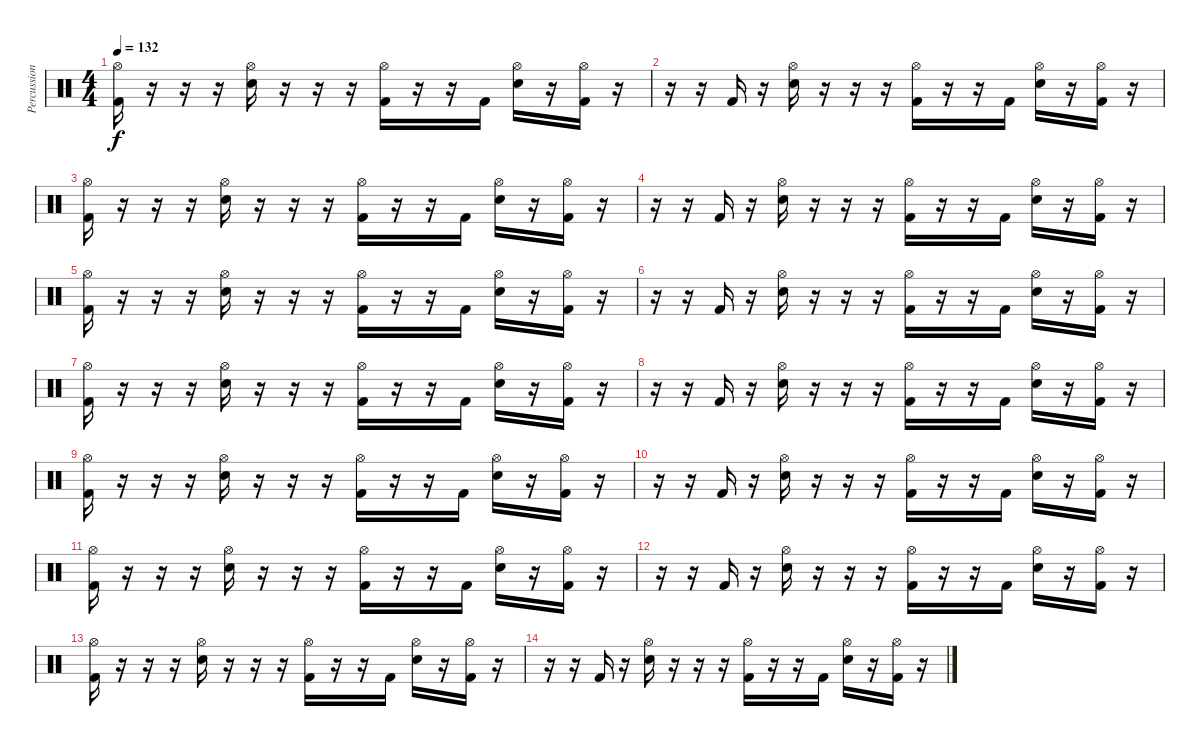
\track ("Percussion" "Percussion") {instrument percussion}
\staff {score}
\articulation defaults
\ts (4 4)
\tempo 132
\clef neutral
\ks c
("Hi-Hat (open)" "Kick (hit) 2").16{dy f} r.16 r.16 r.16 ("Hi-Hat (open)" "Snare (hit) 2").16 r.16 r.16 r.16 ("Hi-Hat (open)" "Kick (hit) 2").16 r.16 r.16 "Kick (hit) 2".16 ("Hi-Hat (open)" "Snare (hit) 2").16 r.16 ("Hi-Hat (open)" "Kick (hit) 2").16 r.16 |
r.16 r.16 "Kick (hit) 2".16 r.16 ("Hi-Hat (open)" "Snare (hit) 2").16 r.16 r.16 r.16 ("Hi-Hat (open)" "Kick (hit) 2").16 r.16 r.16 "Kick (hit) 2".16 ("Hi-Hat (open)" "Snare (hit) 2").16 r.16 ("Hi-Hat (open)" "Kick (hit) 2").16 r.16 |
("Hi-Hat (open)" "Kick (hit) 2").16 r.16 r.16 r.16 ("Hi-Hat (open)" "Snare (hit) 2").16 r.16 r.16 r.16 ("Hi-Hat (open)" "Kick (hit) 2").16 r.16 r.16 "Kick (hit) 2".16 ("Hi-Hat (open)" "Snare (hit) 2").16 r.16 ("Hi-Hat (open)" "Kick (hit) 2").16 r.16 |
r.16 r.16 "Kick (hit) 2".16 r.16 ("Hi-Hat (open)" "Snare (hit) 2").16 r.16 r.16 r.16 ("Hi-Hat (open)" "Kick (hit) 2").16 r.16 r.16 "Kick (hit) 2".16 ("Hi-Hat (open)" "Snare (hit) 2").16 r.16 ("Hi-Hat (open)" "Kick (hit) 2").16 r.16 |
("Hi-Hat (open)" "Kick (hit) 2").16 r.16 r.16 r.16 ("Hi-Hat (open)" "Snare (hit) 2").16 r.16 r.16 r.16 ("Hi-Hat (open)" "Kick (hit) 2").16 r.16 r.16 "Kick (hit) 2".16 ("Hi-Hat (open)" "Snare (hit) 2").16 r.16 ("Hi-Hat (open)" "Kick (hit) 2").16 r.16 |
r.16 r.16 "Kick (hit) 2".16 r.16 ("Hi-Hat (open)" "Snare (hit) 2").16 r.16 r.16 r.16 ("Hi-Hat (open)" "Kick (hit) 2").16 r.16 r.16 "Kick (hit) 2".16 ("Hi-Hat (open)" "Snare (hit) 2").16 r.16 ("Hi-Hat (open)" "Kick (hit) 2").16 r.16 |
("Hi-Hat (open)" "Kick (hit) 2").16 r.16 r.16 r.16 ("Hi-Hat (open)" "Snare (hit) 2").16 r.16 r.16 r.16 ("Hi-Hat (open)" "Kick (hit) 2").16 r.16 r.16 "Kick (hit) 2".16 ("Hi-Hat (open)" "Snare (hit) 2").16 r.16 ("Hi-Hat (open)" "Kick (hit) 2").16 r.16 |
r.16 r.16 "Kick (hit) 2".16 r.16 ("Hi-Hat (open)" "Snare (hit) 2").16 r.16 r.16 r.16 ("Hi-Hat (open)" "Kick (hit) 2").16 r.16 r.16 "Kick (hit) 2".16 ("Hi-Hat (open)" "Snare (hit) 2").16 r.16 ("Hi-Hat (open)" "Kick (hit) 2").16 r.16 |
("Hi-Hat (open)" "Kick (hit) 2").16 r.16 r.16 r.16 ("Hi-Hat (open)" "Snare (hit) 2").16 r.16 r.16 r.16 ("Hi-Hat (open)" "Kick (hit) 2").16 r.16 r.16 "Kick (hit) 2".16 ("Hi-Hat (open)" "Snare (hit) 2").16 r.16 ("Hi-Hat (open)" "Kick (hit) 2").16 r.16 |
r.16 r.16 "Kick (hit) 2".16 r.16 ("Hi-Hat (open)" "Snare (hit) 2").16 r.16 r.16 r.16 ("Hi-Hat (open)" "Kick (hit) 2").16 r.16 r.16 "Kick (hit) 2".16 ("Hi-Hat (open)" "Snare (hit) 2").16 r.16 ("Hi-Hat (open)" "Kick (hit) 2").16 r.16 |
("Hi-Hat (open)" "Kick (hit) 2").16 r.16 r.16 r.16 ("Hi-Hat (open)" "Snare (hit) 2").16 r.16 r.16 r.16 ("Hi-Hat (open)" "Kick (hit) 2").16 r.16 r.16 "Kick (hit) 2".16 ("Hi-Hat (open)" "Snare (hit) 2").16 r.16 ("Hi-Hat (open)" "Kick (hit) 2").16 r.16 |
r.16 r.16 "Kick (hit) 2".16 r.16 ("Hi-Hat (open)" "Snare (hit) 2").16 r.16 r.16 r.16 ("Hi-Hat (open)" "Kick (hit) 2").16 r.16 r.16 "Kick (hit) 2".16 ("Hi-Hat (open)" "Snare (hit) 2").16 r.16 ("Hi-Hat (open)" "Kick (hit) 2").16 r.16 |
("Hi-Hat (open)" "Kick (hit) 2").16 r.16 r.16 r.16 ("Hi-Hat (open)" "Snare (hit) 2").16 r.16 r.16 r.16 ("Hi-Hat (open)" "Kick (hit) 2").16 r.16 r.16 "Kick (hit) 2".16 ("Hi-Hat (open)" "Snare (hit) 2").16 r.16 ("Hi-Hat (open)" "Kick (hit) 2").16 r.16 |
r.16 r.16 "Kick (hit) 2".16 r.16 ("Hi-Hat (open)" "Snare (hit) 2").16 r.16 r.16 r.16 ("Hi-Hat (open)" "Kick (hit) 2").16 r.16 r.16 "Kick (hit) 2".16 ("Hi-Hat (open)" "Snare (hit) 2").16 r.16 ("Hi-Hat (open)" "Kick (hit) 2").16 r.16
